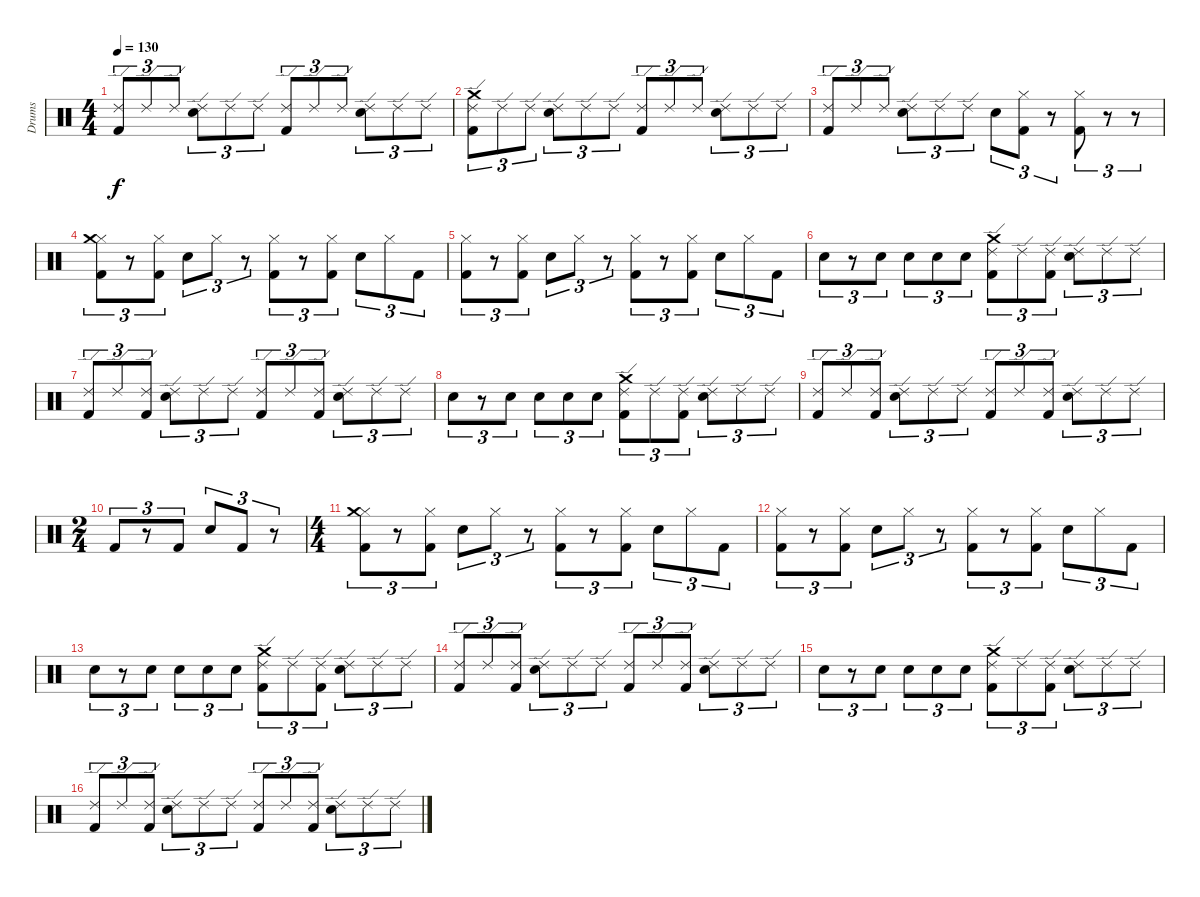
\track ("Drums" "Drums") {instrument percussion}
\staff {score}
\articulation defaults
\ts (4 4)
\tempo 130
\clef neutral
\ks c
("Ride (edge) 2" "Kick (hit) 2").8{tu (3 2) dy f} "Ride (edge) 2".8{tu (3 2)} "Ride (edge) 2".8{tu (3 2)} ("Ride (edge) 2" "Electric Snare (hit)").8{tu (3 2)} "Ride (edge) 2".8{tu (3 2)} "Ride (edge) 2".8{tu (3 2)} ("Ride (edge) 2" "Kick (hit) 2").8{tu (3 2)} "Ride (edge) 2".8{tu (3 2)} "Ride (edge) 2".8{tu (3 2)} ("Ride (edge) 2" "Electric Snare (hit)").8{tu (3 2)} "Ride (edge) 2".8{tu (3 2)} "Ride (edge) 2".8{tu (3 2)} |
("Ride (edge) 2" "Kick (hit) 2" "Crash medium (hit)").8{tu (3 2)} "Ride (edge) 2".8{tu (3 2)} "Ride (edge) 2".8{tu (3 2)} ("Ride (edge) 2" "Electric Snare (hit)").8{tu (3 2)} "Ride (edge) 2".8{tu (3 2)} "Ride (edge) 2".8{tu (3 2)} ("Ride (edge) 2" "Kick (hit) 2").8{tu (3 2)} "Ride (edge) 2".8{tu (3 2)} "Ride (edge) 2".8{tu (3 2)} ("Ride (edge) 2" "Electric Snare (hit)").8{tu (3 2)} "Ride (edge) 2".8{tu (3 2)} "Ride (edge) 2".8{tu (3 2)} |
("Ride (edge) 2" "Kick (hit) 2").8{tu (3 2)} "Ride (edge) 2".8{tu (3 2)} "Ride (edge) 2".8{tu (3 2)} ("Ride (edge) 2" "Electric Snare (hit)").8{tu (3 2)} "Ride (edge) 2".8{tu (3 2)} "Ride (edge) 2".8{tu (3 2)} "Electric Snare (hit)".8{tu (3 2)} ("Hi-Hat (closed)" "Kick (hit) 2").8{tu (3 2)} r.8{tu (3 2)} ("Hi-Hat (closed)" "Kick (hit) 2").8{tu (3 2)} r.8{tu (3 2)} r.8{tu (3 2)} |
("Kick (hit) 2" "Hi-Hat (closed)" "Crash medium (hit)").8{tu (3 2)} r.8{tu (3 2)} ("Kick (hit) 2" "Hi-Hat (closed)").8{tu (3 2)} "Electric Snare (hit)".8{tu (3 2)} "Hi-Hat (closed)".8{tu (3 2)} r.8{tu (3 2)} ("Kick (hit) 2" "Hi-Hat (closed)").8{tu (3 2)} r.8{tu (3 2)} ("Kick (hit) 2" "Hi-Hat (closed)").8{tu (3 2)} "Electric Snare (hit)".8{tu (3 2)} "Hi-Hat (closed)".8{tu (3 2)} "Kick (hit) 2".8{tu (3 2)} |
("Kick (hit) 2" "Hi-Hat (closed)").8{tu (3 2)} r.8{tu (3 2)} ("Kick (hit) 2" "Hi-Hat (closed)").8{tu (3 2)} "Electric Snare (hit)".8{tu (3 2)} "Hi-Hat (closed)".8{tu (3 2)} r.8{tu (3 2)} ("Kick (hit) 2" "Hi-Hat (closed)").8{tu (3 2)} r.8{tu (3 2)} ("Kick (hit) 2" "Hi-Hat (closed)").8{tu (3 2)} "Electric Snare (hit)".8{tu (3 2)} "Hi-Hat (closed)".8{tu (3 2)} "Kick (hit) 2".8{tu (3 2)} |
"Electric Snare (hit)".8{tu (3 2)} r.8{tu (3 2)} "Electric Snare (hit)".8{tu (3 2)} "Electric Snare (hit)".8{tu (3 2)} "Electric Snare (hit)".8{tu (3 2)} "Electric Snare (hit)".8{tu (3 2)} ("Kick (hit) 2" "Ride (edge) 2" "Crash medium (hit)").8{tu (3 2)} "Ride (edge) 2".8{tu (3 2)} ("Kick (hit) 2" "Ride (edge) 2").8{tu (3 2)} ("Ride (edge) 2" "Electric Snare (hit)").8{tu (3 2)} "Ride (edge) 2".8{tu (3 2)} "Ride (edge) 2".8{tu (3 2)} |
("Kick (hit) 2" "Ride (edge) 2").8{tu (3 2)} "Ride (edge) 2".8{tu (3 2)} ("Kick (hit) 2" "Ride (edge) 2").8{tu (3 2)} ("Electric Snare (hit)" "Ride (edge) 2").8{tu (3 2)} "Ride (edge) 2".8{tu (3 2)} "Ride (edge) 2".8{tu (3 2)} ("Kick (hit) 2" "Ride (edge) 2").8{tu (3 2)} "Ride (edge) 2".8{tu (3 2)} ("Kick (hit) 2" "Ride (edge) 2").8{tu (3 2)} ("Electric Snare (hit)" "Ride (edge) 2").8{tu (3 2)} "Ride (edge) 2".8{tu (3 2)} "Ride (edge) 2".8{tu (3 2)} |
"Electric Snare (hit)".8{tu (3 2)} r.8{tu (3 2)} "Electric Snare (hit)".8{tu (3 2)} "Electric Snare (hit)".8{tu (3 2)} "Electric Snare (hit)".8{tu (3 2)} "Electric Snare (hit)".8{tu (3 2)} ("Kick (hit) 2" "Ride (edge) 2" "Crash medium (hit)").8{tu (3 2)} "Ride (edge) 2".8{tu (3 2)} ("Kick (hit) 2" "Ride (edge) 2").8{tu (3 2)} ("Ride (edge) 2" "Electric Snare (hit)").8{tu (3 2)} "Ride (edge) 2".8{tu (3 2)} "Ride (edge) 2".8{tu (3 2)} |
("Kick (hit) 2" "Ride (edge) 2").8{tu (3 2)} "Ride (edge) 2".8{tu (3 2)} ("Kick (hit) 2" "Ride (edge) 2").8{tu (3 2)} ("Electric Snare (hit)" "Ride (edge) 2").8{tu (3 2)} "Ride (edge) 2".8{tu (3 2)} "Ride (edge) 2".8{tu (3 2)} ("Kick (hit) 2" "Ride (edge) 2").8{tu (3 2)} "Ride (edge) 2".8{tu (3 2)} ("Kick (hit) 2" "Ride (edge) 2").8{tu (3 2)} ("Electric Snare (hit)" "Ride (edge) 2").8{tu (3 2)} "Ride (edge) 2".8{tu (3 2)} "Ride (edge) 2".8{tu (3 2)} |
\ts (2 4)
"Kick (hit) 2".8{tu (3 2)} r.8{tu (3 2)} "Kick (hit) 2".8{tu (3 2)} "Electric Snare (hit)".8{tu (3 2)} "Kick (hit) 2".8{tu (3 2)} r.8{tu (3 2)} |
\ts (4 4)
("Kick (hit) 2" "Hi-Hat (closed)" "Crash medium (hit)").8{tu (3 2)} r.8{tu (3 2)} ("Kick (hit) 2" "Hi-Hat (closed)").8{tu (3 2)} "Electric Snare (hit)".8{tu (3 2)} "Hi-Hat (closed)".8{tu (3 2)} r.8{tu (3 2)} ("Kick (hit) 2" "Hi-Hat (closed)").8{tu (3 2)} r.8{tu (3 2)} ("Kick (hit) 2" "Hi-Hat (closed)").8{tu (3 2)} "Electric Snare (hit)".8{tu (3 2)} "Hi-Hat (closed)".8{tu (3 2)} "Kick (hit) 2".8{tu (3 2)} |
("Kick (hit) 2" "Hi-Hat (closed)").8{tu (3 2)} r.8{tu (3 2)} ("Kick (hit) 2" "Hi-Hat (closed)").8{tu (3 2)} "Electric Snare (hit)".8{tu (3 2)} "Hi-Hat (closed)".8{tu (3 2)} r.8{tu (3 2)} ("Kick (hit) 2" "Hi-Hat (closed)").8{tu (3 2)} r.8{tu (3 2)} ("Kick (hit) 2" "Hi-Hat (closed)").8{tu (3 2)} "Electric Snare (hit)".8{tu (3 2)} "Hi-Hat (closed)".8{tu (3 2)} "Kick (hit) 2".8{tu (3 2)} |
"Electric Snare (hit)".8{tu (3 2)} r.8{tu (3 2)} "Electric Snare (hit)".8{tu (3 2)} "Electric Snare (hit)".8{tu (3 2)} "Electric Snare (hit)".8{tu (3 2)} "Electric Snare (hit)".8{tu (3 2)} ("Kick (hit) 2" "Ride (edge) 2" "Crash medium (hit)").8{tu (3 2)} "Ride (edge) 2".8{tu (3 2)} ("Kick (hit) 2" "Ride (edge) 2").8{tu (3 2)} ("Ride (edge) 2" "Electric Snare (hit)").8{tu (3 2)} "Ride (edge) 2".8{tu (3 2)} "Ride (edge) 2".8{tu (3 2)} |
("Kick (hit) 2" "Ride (edge) 2").8{tu (3 2)} "Ride (edge) 2".8{tu (3 2)} ("Kick (hit) 2" "Ride (edge) 2").8{tu (3 2)} ("Electric Snare (hit)" "Ride (edge) 2").8{tu (3 2)} "Ride (edge) 2".8{tu (3 2)} "Ride (edge) 2".8{tu (3 2)} ("Kick (hit) 2" "Ride (edge) 2").8{tu (3 2)} "Ride (edge) 2".8{tu (3 2)} ("Kick (hit) 2" "Ride (edge) 2").8{tu (3 2)} ("Electric Snare (hit)" "Ride (edge) 2").8{tu (3 2)} "Ride (edge) 2".8{tu (3 2)} "Ride (edge) 2".8{tu (3 2)} |
"Electric Snare (hit)".8{tu (3 2)} r.8{tu (3 2)} "Electric Snare (hit)".8{tu (3 2)} "Electric Snare (hit)".8{tu (3 2)} "Electric Snare (hit)".8{tu (3 2)} "Electric Snare (hit)".8{tu (3 2)} ("Kick (hit) 2" "Ride (edge) 2" "Crash medium (hit)").8{tu (3 2)} "Ride (edge) 2".8{tu (3 2)} ("Kick (hit) 2" "Ride (edge) 2").8{tu (3 2)} ("Ride (edge) 2" "Electric Snare (hit)").8{tu (3 2)} "Ride (edge) 2".8{tu (3 2)} "Ride (edge) 2".8{tu (3 2)} |
("Kick (hit) 2" "Ride (edge) 2").8{tu (3 2)} "Ride (edge) 2".8{tu (3 2)} ("Kick (hit) 2" "Ride (edge) 2").8{tu (3 2)} ("Electric Snare (hit)" "Ride (edge) 2").8{tu (3 2)} "Ride (edge) 2".8{tu (3 2)} "Ride (edge) 2".8{tu (3 2)} ("Kick (hit) 2" "Ride (edge) 2").8{tu (3 2)} "Ride (edge) 2".8{tu (3 2)} ("Kick (hit) 2" "Ride (edge) 2").8{tu (3 2)} ("Electric Snare (hit)" "Ride (edge) 2").8{tu (3 2)} "Ride (edge) 2".8{tu (3 2)} "Ride (edge) 2".8{tu (3 2)}
